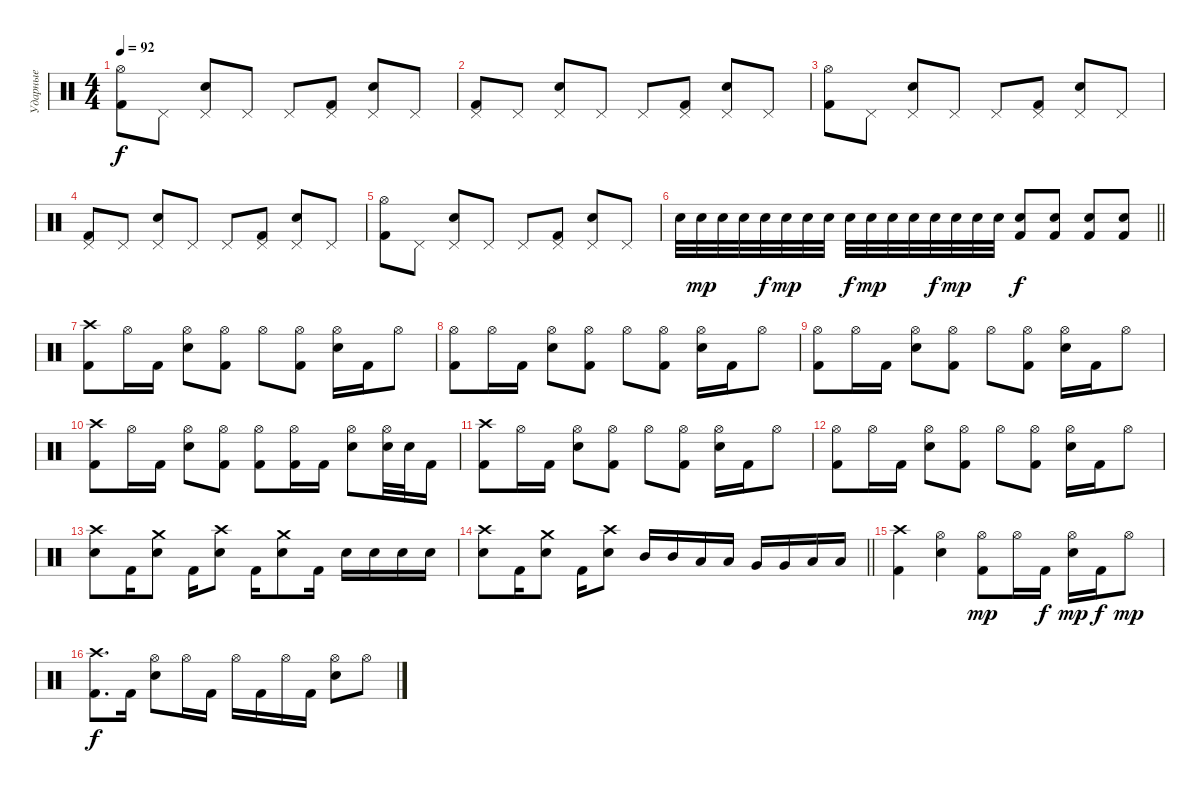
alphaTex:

\track ("Ударные" "Ударные") {instrument percussion}
\staff {score}
\articulation defaults
\ts (4 4)
\tempo 92
\clef neutral
\ks c
("Kick (hit) 2" "Hi-Hat (open)").8{dy f} "Pedal Hi-Hat (hit)".8 ("Electric Snare (hit)" "Pedal Hi-Hat (hit)").8 "Pedal Hi-Hat (hit)".8 "Pedal Hi-Hat (hit)".8 ("Kick (hit) 2" "Pedal Hi-Hat (hit)").8 ("Electric Snare (hit)" "Pedal Hi-Hat (hit)").8 "Pedal Hi-Hat (hit)".8 |
("Kick (hit) 2" "Pedal Hi-Hat (hit)").8 "Pedal Hi-Hat (hit)".8 ("Electric Snare (hit)" "Pedal Hi-Hat (hit)").8 "Pedal Hi-Hat (hit)".8 "Pedal Hi-Hat (hit)".8 ("Kick (hit) 2" "Pedal Hi-Hat (hit)").8 ("Electric Snare (hit)" "Pedal Hi-Hat (hit)").8 "Pedal Hi-Hat (hit)".8 |
("Kick (hit) 2" "Hi-Hat (open)").8 "Pedal Hi-Hat (hit)".8 ("Electric Snare (hit)" "Pedal Hi-Hat (hit)").8 "Pedal Hi-Hat (hit)".8 "Pedal Hi-Hat (hit)".8 ("Kick (hit) 2" "Pedal Hi-Hat (hit)").8 ("Electric Snare (hit)" "Pedal Hi-Hat (hit)").8 "Pedal Hi-Hat (hit)".8 |
("Kick (hit) 2" "Pedal Hi-Hat (hit)").8 "Pedal Hi-Hat (hit)".8 ("Electric Snare (hit)" "Pedal Hi-Hat (hit)").8 "Pedal Hi-Hat (hit)".8 "Pedal Hi-Hat (hit)".8 ("Kick (hit) 2" "Pedal Hi-Hat (hit)").8 ("Electric Snare (hit)" "Pedal Hi-Hat (hit)").8 "Pedal Hi-Hat (hit)".8 |
("Kick (hit) 2" "Hi-Hat (open)").8 "Pedal Hi-Hat (hit)".8 ("Electric Snare (hit)" "Pedal Hi-Hat (hit)").8 "Pedal Hi-Hat (hit)".8 "Pedal Hi-Hat (hit)".8 ("Kick (hit) 2" "Pedal Hi-Hat (hit)").8 ("Electric Snare (hit)" "Pedal Hi-Hat (hit)").8 "Pedal Hi-Hat (hit)".8 |
\barLineRight lightlight "Electric Snare (hit)".32 "Electric Snare (hit)".32{dy mp} "Electric Snare (hit)".32 "Electric Snare (hit)".32 "Electric Snare (hit)".32{dy f} "Electric Snare (hit)".32{dy mp} "Electric Snare (hit)".32 "Electric Snare (hit)".32 "Electric Snare (hit)".32{dy f} "Electric Snare (hit)".32{dy mp} "Electric Snare (hit)".32 "Electric Snare (hit)".32 "Electric Snare (hit)".32{dy f} "Electric Snare (hit)".32{dy mp} "Electric Snare (hit)".32 "Electric Snare (hit)".32
("Snare (hit) 2" "Kick (hit) 2").8{dy f} ("Snare (hit) 2" "Kick (hit) 2").8 ("Snare (hit) 2" "Kick (hit) 2").8 ("Snare (hit) 2" "Kick (hit) 2").8 |
("Kick (hit) 2" "Crash high (hit)").8 "Hi-Hat (open)".16 "Kick (hit) 2".16 ("Snare (hit) 2" "Hi-Hat (open)").8 ("Kick (hit) 2" "Hi-Hat (open)").8 "Hi-Hat (open)".8 ("Kick (hit) 2" "Hi-Hat (open)").8 ("Snare (hit) 2" "Hi-Hat (open)").16 "Kick (hit) 2".16 "Hi-Hat (open)".8 |
("Kick (hit) 2" "Hi-Hat (open)").8 "Hi-Hat (open)".16 "Kick (hit) 2".16 ("Snare (hit) 2" "Hi-Hat (open)").8 ("Kick (hit) 2" "Hi-Hat (open)").8 "Hi-Hat (open)".8 ("Kick (hit) 2" "Hi-Hat (open)").8 ("Snare (hit) 2" "Hi-Hat (open)").16 "Kick (hit) 2".16 "Hi-Hat (open)".8 |
("Kick (hit) 2" "Hi-Hat (open)").8 "Hi-Hat (open)".16 "Kick (hit) 2".16 ("Snare (hit) 2" "Hi-Hat (open)").8 ("Kick (hit) 2" "Hi-Hat (open)").8 "Hi-Hat (open)".8 ("Kick (hit) 2" "Hi-Hat (open)").8 ("Snare (hit) 2" "Hi-Hat (open)").16 "Kick (hit) 2".16 "Hi-Hat (open)".8 |
("Kick (hit) 2" "Crash high (hit)").8 "Hi-Hat (open)".16 "Kick (hit) 2".16 ("Snare (hit) 2" "Hi-Hat (open)").8 ("Kick (hit) 2" "Hi-Hat (open)").8 ("Kick (hit) 2" "Hi-Hat (open)").8 ("Kick (hit) 2" "Hi-Hat (open)").16 "Kick (hit) 2".16 ("Snare (hit) 2" "Hi-Hat (open)").8 ("Snare (hit) 2" "Hi-Hat (open)").32 "Snare (hit) 2".32 "Kick (hit) 2".16 |
("Kick (hit) 2" "Crash high (hit)").8 "Hi-Hat (open)".16 "Kick (hit) 2".16 ("Snare (hit) 2" "Hi-Hat (open)").8 ("Kick (hit) 2" "Hi-Hat (open)").8 "Hi-Hat (open)".8 ("Kick (hit) 2" "Hi-Hat (open)").8 ("Snare (hit) 2" "Hi-Hat (open)").16 "Kick (hit) 2".16 "Hi-Hat (open)".8 |
("Kick (hit) 2" "Hi-Hat (open)").8 "Hi-Hat (open)".16 "Kick (hit) 2".16 ("Snare (hit) 2" "Hi-Hat (open)").8 ("Kick (hit) 2" "Hi-Hat (open)").8 "Hi-Hat (open)".8 ("Kick (hit) 2" "Hi-Hat (open)").8 ("Snare (hit) 2" "Hi-Hat (open)").16 "Kick (hit) 2".16 "Hi-Hat (open)".8 |
("Snare (hit) 2" "Crash high (hit)").8 "Kick (hit) 2".16 ("Snare (hit) 2" "Crash medium (hit)").8 "Kick (hit) 2".16 ("Snare (hit) 2" "Crash high (hit)").8 "Kick (hit) 2".16 ("Snare (hit) 2" "Crash medium (hit)").8 "Kick (hit) 2".16 "Snare (hit) 2".16 "Snare (hit) 2".16 "Snare (hit) 2".16 "Snare (hit) 2".16 |
\barLineRight lightlight
("Snare (hit) 2" "Crash high (hit)").8 "Kick (hit) 2".16 ("Snare (hit) 2" "Crash medium (hit)").8 "Kick (hit) 2".16 ("Snare (hit) 2" "Crash high (hit)").8 "Mid Tom (hit)".16 "Mid Tom (hit)".16 "Low Tom (hit)".16 "Low Tom (hit)".16 "Very Low Tom (hit)".16 "Very Low Tom (hit)".16 "Low Floor Tom (hit)".16 "Low Floor Tom (hit)".16 |
("Kick (hit) 2" "Crash high (hit)").4 ("Snare (hit) 2" "Hi-Hat (open)").4 ("Kick (hit) 2" "Hi-Hat (open)").8{dy mp} "Hi-Hat (open)".16 "Kick (hit) 2".16{dy f} ("Snare (hit) 2" "Hi-Hat (open)").16{dy mp} "Kick (hit) 2".16{dy f} "Hi-Hat (open)".8{dy mp} |
("Kick (hit) 2" "Crash high (hit)").8{d dy f} "Kick (hit) 2".16 ("Snare (hit) 2" "Hi-Hat (open)").8 "Hi-Hat (open)".16 "Kick (hit) 2".16 "Hi-Hat (open)".16 "Kick (hit) 2".16 "Hi-Hat (open)".16 "Kick (hit) 2".16 ("Snare (hit) 2" "Hi-Hat (open)").8 "Hi-Hat (open)".8
